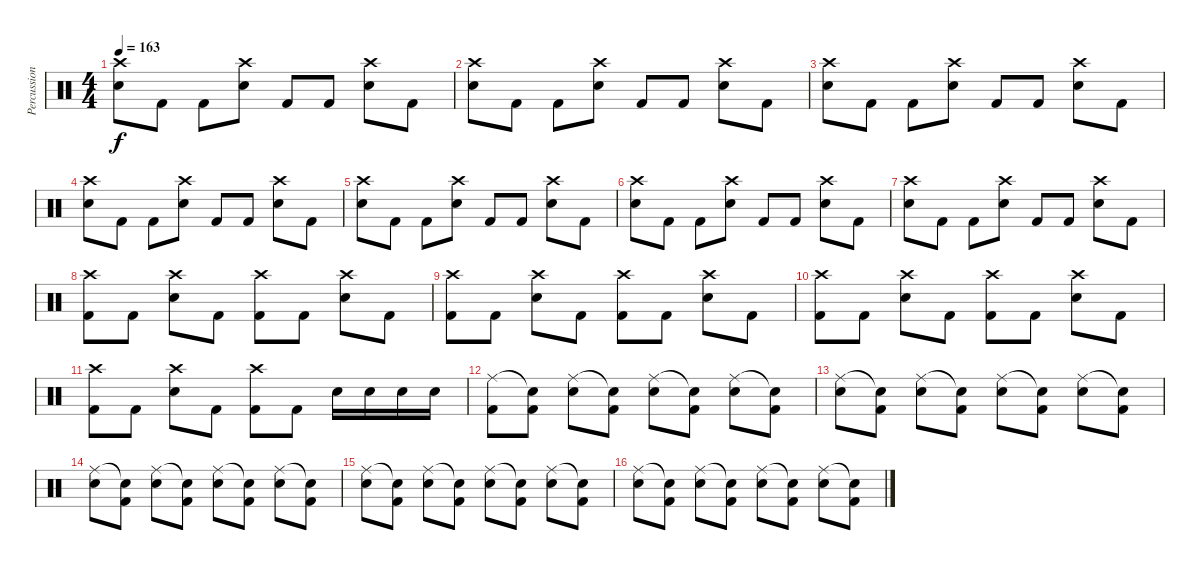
\track ("Percussion" "Percussion") {instrument percussion}
\staff {score}
\articulation defaults
\ts (4 4)
\tempo 163
\clef neutral
\ks c
("Crash high (hit)" "Snare (hit) 2").8{dy f} "Kick (hit) 2".8 "Kick (hit) 2".8 ("Crash high (hit)" "Snare (hit) 2").8 "Kick (hit) 2".8 "Kick (hit) 2".8 ("Crash high (hit)" "Snare (hit) 2").8 "Kick (hit) 2".8 |
("Crash high (hit)" "Snare (hit) 2").8 "Kick (hit) 2".8 "Kick (hit) 2".8 ("Crash high (hit)" "Snare (hit) 2").8 "Kick (hit) 2".8 "Kick (hit) 2".8 ("Crash high (hit)" "Snare (hit) 2").8 "Kick (hit) 2".8 |
("Crash high (hit)" "Snare (hit) 2").8 "Kick (hit) 2".8 "Kick (hit) 2".8 ("Crash high (hit)" "Snare (hit) 2").8 "Kick (hit) 2".8 "Kick (hit) 2".8 ("Crash high (hit)" "Snare (hit) 2").8 "Kick (hit) 2".8 |
("Crash high (hit)" "Snare (hit) 2").8 "Kick (hit) 2".8 "Kick (hit) 2".8 ("Crash high (hit)" "Snare (hit) 2").8 "Kick (hit) 2".8 "Kick (hit) 2".8 ("Crash high (hit)" "Snare (hit) 2").8 "Kick (hit) 2".8 |
("Crash high (hit)" "Snare (hit) 2").8 "Kick (hit) 2".8 "Kick (hit) 2".8 ("Crash high (hit)" "Snare (hit) 2").8 "Kick (hit) 2".8 "Kick (hit) 2".8 ("Crash high (hit)" "Snare (hit) 2").8 "Kick (hit) 2".8 |
("Crash high (hit)" "Snare (hit) 2").8 "Kick (hit) 2".8 "Kick (hit) 2".8 ("Crash high (hit)" "Snare (hit) 2").8 "Kick (hit) 2".8 "Kick (hit) 2".8 ("Crash high (hit)" "Snare (hit) 2").8 "Kick (hit) 2".8 |
("Crash high (hit)" "Snare (hit) 2").8 "Kick (hit) 2".8 "Kick (hit) 2".8 ("Crash high (hit)" "Snare (hit) 2").8 "Kick (hit) 2".8 "Kick (hit) 2".8 ("Crash high (hit)" "Snare (hit) 2").8 "Kick (hit) 2".8 |
("Crash high (hit)" "Kick (hit) 2").8 "Kick (hit) 2".8 ("Crash high (hit)" "Snare (hit) 2").8 "Kick (hit) 2".8 ("Crash high (hit)" "Kick (hit) 2").8 "Kick (hit) 2".8 ("Crash high (hit)" "Snare (hit) 2").8 "Kick (hit) 2".8 |
("Crash high (hit)" "Kick (hit) 2").8 "Kick (hit) 2".8 ("Crash high (hit)" "Snare (hit) 2").8 "Kick (hit) 2".8 ("Crash high (hit)" "Kick (hit) 2").8 "Kick (hit) 2".8 ("Crash high (hit)" "Snare (hit) 2").8 "Kick (hit) 2".8 |
("Crash high (hit)" "Kick (hit) 2").8 "Kick (hit) 2".8 ("Crash high (hit)" "Snare (hit) 2").8 "Kick (hit) 2".8 ("Crash high (hit)" "Kick (hit) 2").8 "Kick (hit) 2".8 ("Crash high (hit)" "Snare (hit) 2").8 "Kick (hit) 2".8 |
("Crash high (hit)" "Kick (hit) 2").8 "Kick (hit) 2".8 ("Crash high (hit)" "Snare (hit) 2").8 "Kick (hit) 2".8 ("Crash high (hit)" "Kick (hit) 2").8 "Kick (hit) 2".8 "Snare (hit) 2".16 "Snare (hit) 2".16 "Snare (hit) 2".16 "Snare (hit) 2".16 |
("Ride (middle)" "Kick (hit) 2").8 ("Snare (hit)"{t} "Kick (hit) 2").8 ("Ride (middle)" "Snare (hit) 2").8 ("Snare (hit)"{t} "Kick (hit) 2").8 ("Ride (middle)" "Snare (hit) 2").8 ("Snare (hit)"{t} "Kick (hit) 2").8 ("Ride (middle)" "Snare (hit) 2").8 ("Snare (hit)"{t} "Kick (hit) 2").8 |
("Ride (middle)" "Snare (hit) 2").8 ("Snare (hit)"{t} "Kick (hit) 2").8 ("Ride (middle)" "Snare (hit) 2").8 ("Snare (hit)"{t} "Kick (hit) 2").8 ("Ride (middle)" "Snare (hit) 2").8 ("Snare (hit)"{t} "Kick (hit) 2").8 ("Ride (middle)" "Snare (hit) 2").8 ("Snare (hit)"{t} "Kick (hit) 2").8 |
("Ride (middle)" "Snare (hit) 2").8 ("Snare (hit)"{t} "Kick (hit) 2").8 ("Ride (middle)" "Snare (hit) 2").8 ("Snare (hit)"{t} "Kick (hit) 2").8 ("Ride (middle)" "Snare (hit) 2").8 ("Snare (hit)"{t} "Kick (hit) 2").8 ("Ride (middle)" "Snare (hit) 2").8 ("Snare (hit)"{t} "Kick (hit) 2").8 |
("Ride (middle)" "Snare (hit) 2").8 ("Snare (hit)"{t} "Kick (hit) 2").8 ("Ride (middle)" "Snare (hit) 2").8 ("Snare (hit)"{t} "Kick (hit) 2").8 ("Ride (middle)" "Snare (hit) 2").8 ("Snare (hit)"{t} "Kick (hit) 2").8 ("Ride (middle)" "Snare (hit) 2").8 ("Snare (hit)"{t} "Kick (hit) 2").8 |
("Ride (middle)" "Snare (hit) 2").8 ("Snare (hit)"{t} "Kick (hit) 2").8 ("Ride (middle)" "Snare (hit) 2").8 ("Snare (hit)"{t} "Kick (hit) 2").8 ("Ride (middle)" "Snare (hit) 2").8 ("Snare (hit)"{t} "Kick (hit) 2").8 ("Ride (middle)" "Snare (hit) 2").8 ("Snare (hit)"{t} "Kick (hit) 2").8
